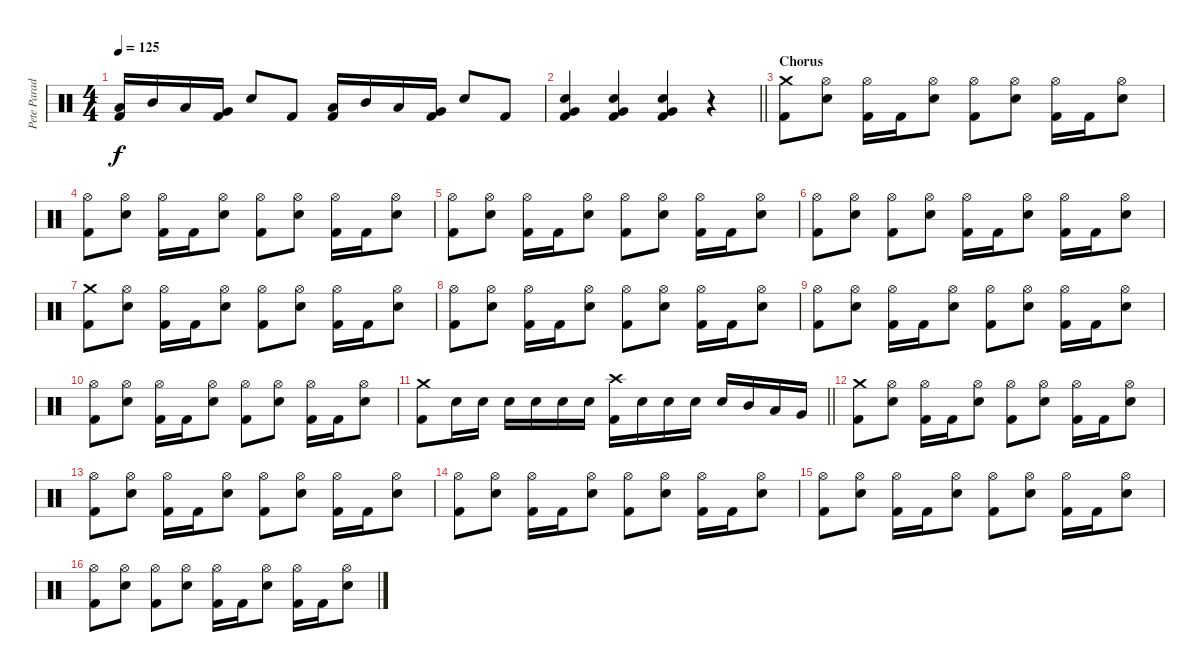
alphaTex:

\track ("Pete Parada - Drums" "Pete Parad") {instrument percussion}
\staff {score}
\articulation defaults
\ts (4 4)
\tempo 125
\clef neutral
\ks c
("Low Tom (hit)" "Kick (hit) 2").16{dy f} "Mid Tom (hit)".16 "Low Tom (hit)".16 ("Very Low Tom (hit)" "Kick (hit) 2").16 "Electric Snare (hit)".8 "Kick (hit) 2".8 ("Low Tom (hit)" "Kick (hit) 2").16 "Mid Tom (hit)".16 "Low Tom (hit)".16 ("Very Low Tom (hit)" "Kick (hit) 2").16 "Electric Snare (hit)".8 "Kick (hit) 2".8 |
\barLineRight lightlight
("Electric Snare (hit)" "Very Low Tom (hit)" "Kick (hit) 2").4 ("Electric Snare (hit)" "Very Low Tom (hit)" "Kick (hit) 2").4 ("Electric Snare (hit)" "Very Low Tom (hit)" "Kick (hit) 2").4 r.4 |
\section ("" "Chorus")
("Crash medium (hit)" "Kick (hit) 2").8 ("Hi-Hat (open)" "Electric Snare (hit)").8 ("Hi-Hat (open)" "Kick (hit) 2").16 "Kick (hit) 2".16 ("Hi-Hat (open)" "Electric Snare (hit)").8 ("Hi-Hat (open)" "Kick (hit) 2").8 ("Hi-Hat (open)" "Electric Snare (hit)").8 ("Hi-Hat (open)" "Kick (hit) 2").16 "Kick (hit) 2".16 ("Hi-Hat (open)" "Electric Snare (hit)").8 |
("Hi-Hat (open)" "Kick (hit) 2").8 ("Hi-Hat (open)" "Electric Snare (hit)").8 ("Hi-Hat (open)" "Kick (hit) 2").16 "Kick (hit) 2".16 ("Hi-Hat (open)" "Electric Snare (hit)").8 ("Hi-Hat (open)" "Kick (hit) 2").8 ("Hi-Hat (open)" "Electric Snare (hit)").8 ("Hi-Hat (open)" "Kick (hit) 2").16 "Kick (hit) 2".16 ("Hi-Hat (open)" "Electric Snare (hit)").8 |
("Hi-Hat (open)" "Kick (hit) 2").8 ("Hi-Hat (open)" "Electric Snare (hit)").8 ("Hi-Hat (open)" "Kick (hit) 2").16 "Kick (hit) 2".16 ("Hi-Hat (open)" "Electric Snare (hit)").8 ("Hi-Hat (open)" "Kick (hit) 2").8 ("Hi-Hat (open)" "Electric Snare (hit)").8 ("Hi-Hat (open)" "Kick (hit) 2").16 "Kick (hit) 2".16 ("Hi-Hat (open)" "Electric Snare (hit)").8 |
("Hi-Hat (open)" "Kick (hit) 2").8 ("Hi-Hat (open)" "Electric Snare (hit)").8 ("Hi-Hat (open)" "Kick (hit) 2").8 ("Hi-Hat (open)" "Electric Snare (hit)").8 ("Hi-Hat (open)" "Kick (hit) 2").16 "Kick (hit) 2".16 ("Hi-Hat (open)" "Electric Snare (hit)").8 ("Hi-Hat (open)" "Kick (hit) 2").16 "Kick (hit) 2".16 ("Hi-Hat (open)" "Electric Snare (hit)").8 |
("Crash medium (hit)" "Kick (hit) 2").8 ("Hi-Hat (open)" "Electric Snare (hit)").8 ("Hi-Hat (open)" "Kick (hit) 2").16 "Kick (hit) 2".16 ("Hi-Hat (open)" "Electric Snare (hit)").8 ("Hi-Hat (open)" "Kick (hit) 2").8 ("Hi-Hat (open)" "Electric Snare (hit)").8 ("Hi-Hat (open)" "Kick (hit) 2").16 "Kick (hit) 2".16 ("Hi-Hat (open)" "Electric Snare (hit)").8 |
("Hi-Hat (open)" "Kick (hit) 2").8 ("Hi-Hat (open)" "Electric Snare (hit)").8 ("Hi-Hat (open)" "Kick (hit) 2").16 "Kick (hit) 2".16 ("Hi-Hat (open)" "Electric Snare (hit)").8 ("Hi-Hat (open)" "Kick (hit) 2").8 ("Hi-Hat (open)" "Electric Snare (hit)").8 ("Hi-Hat (open)" "Kick (hit) 2").16 "Kick (hit) 2".16 ("Hi-Hat (open)" "Electric Snare (hit)").8 |
("Hi-Hat (open)" "Kick (hit) 2").8 ("Hi-Hat (open)" "Electric Snare (hit)").8 ("Hi-Hat (open)" "Kick (hit) 2").16 "Kick (hit) 2".16 ("Hi-Hat (open)" "Electric Snare (hit)").8 ("Hi-Hat (open)" "Kick (hit) 2").8 ("Hi-Hat (open)" "Electric Snare (hit)").8 ("Hi-Hat (open)" "Kick (hit) 2").16 "Kick (hit) 2".16 ("Hi-Hat (open)" "Electric Snare (hit)").8 |
("Hi-Hat (open)" "Kick (hit) 2").8 ("Hi-Hat (open)" "Electric Snare (hit)").8 ("Hi-Hat (open)" "Kick (hit) 2").16 "Kick (hit) 2".16 ("Hi-Hat (open)" "Electric Snare (hit)").8 ("Hi-Hat (open)" "Kick (hit) 2").8 ("Hi-Hat (open)" "Electric Snare (hit)").8 ("Hi-Hat (open)" "Kick (hit) 2").16 "Kick (hit) 2".16 ("Hi-Hat (open)" "Electric Snare (hit)").8 |
\barLineRight lightlight
("Crash medium (hit)" "Kick (hit) 2").8 "Electric Snare (hit)".16 "Electric Snare (hit)".16 "Electric Snare (hit)".16 "Electric Snare (hit)".16 "Electric Snare (hit)".16 "Electric Snare (hit)".16 ("Crash high (hit)" "Kick (hit) 2").16 "Electric Snare (hit)".16 "Electric Snare (hit)".16 "Electric Snare (hit)".16 "Electric Snare (hit)".16 "Mid Tom (hit)".16 "Low Tom (hit)".16 "Very Low Tom (hit)".16 |
("Crash medium (hit)" "Kick (hit) 2").8 ("Hi-Hat (open)" "Electric Snare (hit)").8 ("Hi-Hat (open)" "Kick (hit) 2").16 "Kick (hit) 2".16 ("Hi-Hat (open)" "Electric Snare (hit)").8 ("Hi-Hat (open)" "Kick (hit) 2").8 ("Hi-Hat (open)" "Electric Snare (hit)").8 ("Hi-Hat (open)" "Kick (hit) 2").16 "Kick (hit) 2".16 ("Hi-Hat (open)" "Electric Snare (hit)").8 |
("Hi-Hat (open)" "Kick (hit) 2").8 ("Hi-Hat (open)" "Electric Snare (hit)").8 ("Hi-Hat (open)" "Kick (hit) 2").16 "Kick (hit) 2".16 ("Hi-Hat (open)" "Electric Snare (hit)").8 ("Hi-Hat (open)" "Kick (hit) 2").8 ("Hi-Hat (open)" "Electric Snare (hit)").8 ("Hi-Hat (open)" "Kick (hit) 2").16 "Kick (hit) 2".16 ("Hi-Hat (open)" "Electric Snare (hit)").8 |
("Hi-Hat (open)" "Kick (hit) 2").8 ("Hi-Hat (open)" "Electric Snare (hit)").8 ("Hi-Hat (open)" "Kick (hit) 2").16 "Kick (hit) 2".16 ("Hi-Hat (open)" "Electric Snare (hit)").8 ("Hi-Hat (open)" "Kick (hit) 2").8 ("Hi-Hat (open)" "Electric Snare (hit)").8 ("Hi-Hat (open)" "Kick (hit) 2").16 "Kick (hit) 2".16 ("Hi-Hat (open)" "Electric Snare (hit)").8 |
("Hi-Hat (open)" "Kick (hit) 2").8 ("Hi-Hat (open)" "Electric Snare (hit)").8 ("Hi-Hat (open)" "Kick (hit) 2").16 "Kick (hit) 2".16 ("Hi-Hat (open)" "Electric Snare (hit)").8 ("Hi-Hat (open)" "Kick (hit) 2").8 ("Hi-Hat (open)" "Electric Snare (hit)").8 ("Hi-Hat (open)" "Kick (hit) 2").16 "Kick (hit) 2".16 ("Hi-Hat (open)" "Electric Snare (hit)").8 |
("Hi-Hat (open)" "Kick (hit) 2").8 ("Hi-Hat (open)" "Electric Snare (hit)").8 ("Hi-Hat (open)" "Kick (hit) 2").8 ("Hi-Hat (open)" "Electric Snare (hit)").8 ("Hi-Hat (open)" "Kick (hit) 2").16 "Kick (hit) 2".16 ("Hi-Hat (open)" "Electric Snare (hit)").8 ("Hi-Hat (open)" "Kick (hit) 2").16 "Kick (hit) 2".16 ("Hi-Hat (open)" "Electric Snare (hit)").8
